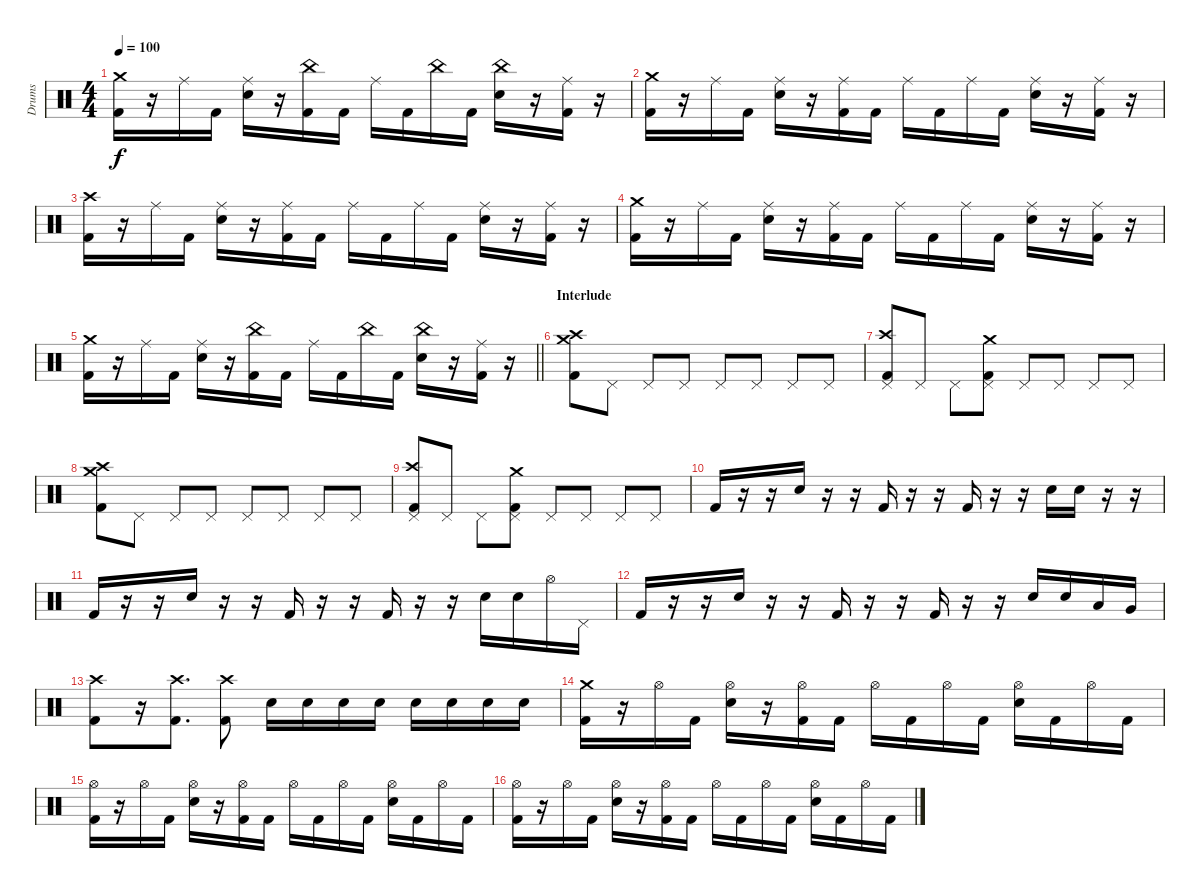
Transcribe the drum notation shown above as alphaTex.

\track ("Drums" "Drums") {instrument percussion}
\staff {score}
\articulation defaults
\ts (4 4)
\tempo 100
\clef neutral
\ks c
("Crash medium (hit)" "Kick (hit) 2").16{dy f} r.16 "Ride (middle)".16 "Kick (hit) 2".16 ("Ride (middle)" "Electric Snare (hit)").16 r.16 ("China (hit)" "Kick (hit) 2").16 "Kick (hit) 2".16 "Ride (middle)".16 "Kick (hit) 2".16 "China (hit)".16 "Kick (hit) 2".16 ("China (hit)" "Electric Snare (hit)").16 r.16 ("Ride (middle)" "Kick (hit) 2").16 r.16 |
("Crash medium (hit)" "Kick (hit) 2").16 r.16 "Ride (middle)".16 "Kick (hit) 2".16 ("Ride (middle)" "Electric Snare (hit)").16 r.16 ("Ride (middle)" "Kick (hit) 2").16 "Kick (hit) 2".16 "Ride (middle)".16 "Kick (hit) 2".16 "Ride (middle)".16 "Kick (hit) 2".16 ("Ride (middle)" "Electric Snare (hit)").16 r.16 ("Ride (middle)" "Kick (hit) 2").16 r.16 |
("Crash high (hit)" "Kick (hit) 2").16 r.16 "Ride (middle)".16 "Kick (hit) 2".16 ("Ride (middle)" "Electric Snare (hit)").16 r.16 ("Ride (middle)" "Kick (hit) 2").16 "Kick (hit) 2".16 "Ride (middle)".16 "Kick (hit) 2".16 "Ride (middle)".16 "Kick (hit) 2".16 ("Ride (middle)" "Electric Snare (hit)").16 r.16 ("Ride (middle)" "Kick (hit) 2").16 r.16 |
("Crash medium (hit)" "Kick (hit) 2").16 r.16 "Ride (middle)".16 "Kick (hit) 2".16 ("Ride (middle)" "Electric Snare (hit)").16 r.16 ("Ride (middle)" "Kick (hit) 2").16 "Kick (hit) 2".16 "Ride (middle)".16 "Kick (hit) 2".16 "Ride (middle)".16 "Kick (hit) 2".16 ("Ride (middle)" "Electric Snare (hit)").16 r.16 ("Ride (middle)" "Kick (hit) 2").16 r.16 |
\barLineRight lightlight
("Crash medium (hit)" "Kick (hit) 2").16 r.16 "Ride (middle)".16 "Kick (hit) 2".16 ("Ride (middle)" "Electric Snare (hit)").16 r.16 ("China (hit)" "Kick (hit) 2").16 "Kick (hit) 2".16 "Ride (middle)".16 "Kick (hit) 2".16 "China (hit)".16 "Kick (hit) 2".16 ("China (hit)" "Electric Snare (hit)").16 r.16 ("Ride (middle)" "Kick (hit) 2").16 r.16 |
\section ("" "Interlude")
("Crash high (hit)" "Crash medium (hit)" "Kick (hit) 2").8 "Pedal Hi-Hat (hit)".8 "Pedal Hi-Hat (hit)".8 "Pedal Hi-Hat (hit)".8 "Pedal Hi-Hat (hit)".8 "Pedal Hi-Hat (hit)".8 "Pedal Hi-Hat (hit)".8 "Pedal Hi-Hat (hit)".8 |
("Crash high (hit)" "Pedal Hi-Hat (hit)" "Kick (hit) 2").8 "Pedal Hi-Hat (hit)".8 "Pedal Hi-Hat (hit)".8 ("Crash medium (hit)" "Pedal Hi-Hat (hit)" "Kick (hit) 2").8 "Pedal Hi-Hat (hit)".8 "Pedal Hi-Hat (hit)".8 "Pedal Hi-Hat (hit)".8 "Pedal Hi-Hat (hit)".8 |
("Crash high (hit)" "Crash medium (hit)" "Kick (hit) 2").8 "Pedal Hi-Hat (hit)".8 "Pedal Hi-Hat (hit)".8 "Pedal Hi-Hat (hit)".8 "Pedal Hi-Hat (hit)".8 "Pedal Hi-Hat (hit)".8 "Pedal Hi-Hat (hit)".8 "Pedal Hi-Hat (hit)".8 |
("Crash high (hit)" "Pedal Hi-Hat (hit)" "Kick (hit) 2").8 "Pedal Hi-Hat (hit)".8 "Pedal Hi-Hat (hit)".8 ("Crash medium (hit)" "Pedal Hi-Hat (hit)" "Kick (hit) 2").8 "Pedal Hi-Hat (hit)".8 "Pedal Hi-Hat (hit)".8 "Pedal Hi-Hat (hit)".8 "Pedal Hi-Hat (hit)".8 |
"Kick (hit) 2".16 r.16 r.16 "Electric Snare (hit)".16 r.16 r.16 "Kick (hit) 2".16 r.16 r.16 "Kick (hit) 2".16 r.16 r.16 "Electric Snare (hit)".16 "Electric Snare (hit)".16 r.16 r.16 |
"Kick (hit) 2".16 r.16 r.16 "Electric Snare (hit)".16 r.16 r.16 "Kick (hit) 2".16 r.16 r.16 "Kick (hit) 2".16 r.16 r.16 "Electric Snare (hit)".16 "Electric Snare (hit)".16 "Hi-Hat (open)".16 "Pedal Hi-Hat (hit)".16 |
"Kick (hit) 2".16 r.16 r.16 "Electric Snare (hit)".16 r.16 r.16 "Kick (hit) 2".16 r.16 r.16 "Kick (hit) 2".16 r.16 r.16 "Electric Snare (hit)".16 "Electric Snare (hit)".16 "Low Tom (hit)".16 "Very Low Tom (hit)".16 |
("Crash high (hit)" "Kick (hit) 2").8 r.16 ("Crash high (hit)" "Kick (hit) 2").8{d} ("Crash high (hit)" "Kick (hit) 2").8 "Electric Snare (hit)".16 "Electric Snare (hit)".16 "Electric Snare (hit)".16 "Electric Snare (hit)".16 "Electric Snare (hit)".16 "Electric Snare (hit)".16 "Electric Snare (hit)".16 "Electric Snare (hit)".16 |
("Crash medium (hit)" "Kick (hit) 2").16 r.16 "Hi-Hat (open)".16 "Kick (hit) 2".16 ("Hi-Hat (open)" "Electric Snare (hit)").16 r.16 ("Hi-Hat (open)" "Kick (hit) 2").16 "Kick (hit) 2".16 "Hi-Hat (open)".16 "Kick (hit) 2".16 "Hi-Hat (open)".16 "Kick (hit) 2".16 ("Hi-Hat (open)" "Electric Snare (hit)").16 "Kick (hit) 2".16 "Hi-Hat (open)".16 "Kick (hit) 2".16 |
("Hi-Hat (open)" "Kick (hit) 2").16 r.16 "Hi-Hat (open)".16 "Kick (hit) 2".16 ("Hi-Hat (open)" "Electric Snare (hit)").16 r.16 ("Hi-Hat (open)" "Kick (hit) 2").16 "Kick (hit) 2".16 "Hi-Hat (open)".16 "Kick (hit) 2".16 "Hi-Hat (open)".16 "Kick (hit) 2".16 ("Hi-Hat (open)" "Electric Snare (hit)").16 "Kick (hit) 2".16 "Hi-Hat (open)".16 "Kick (hit) 2".16 |
("Hi-Hat (open)" "Kick (hit) 2").16 r.16 "Hi-Hat (open)".16 "Kick (hit) 2".16 ("Hi-Hat (open)" "Electric Snare (hit)").16 r.16 ("Hi-Hat (open)" "Kick (hit) 2").16 "Kick (hit) 2".16 "Hi-Hat (open)".16 "Kick (hit) 2".16 "Hi-Hat (open)".16 "Kick (hit) 2".16 ("Hi-Hat (open)" "Electric Snare (hit)").16 "Kick (hit) 2".16 "Hi-Hat (open)".16 "Kick (hit) 2".16
